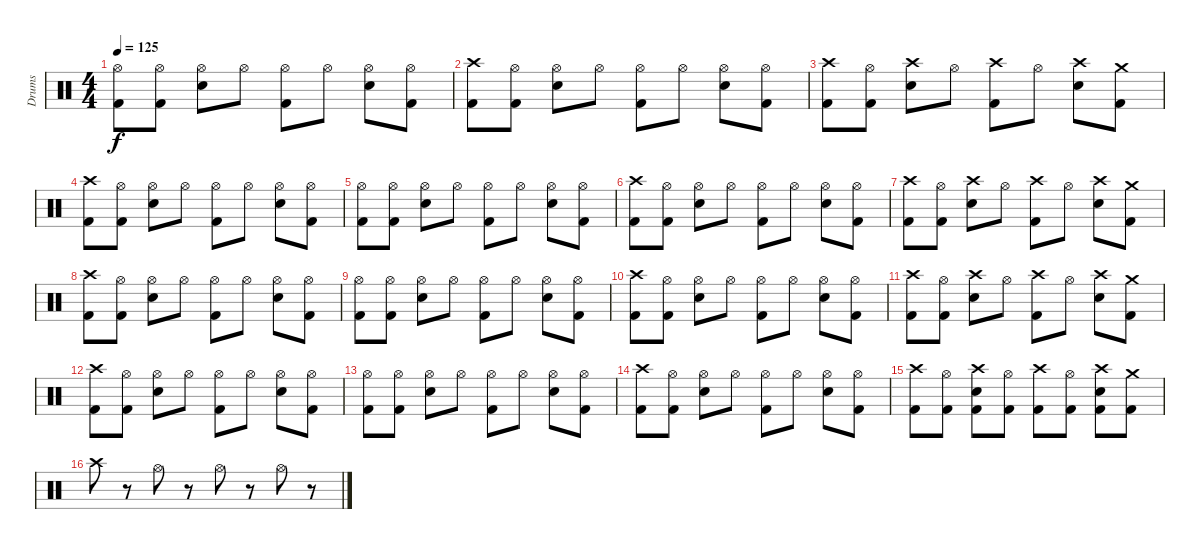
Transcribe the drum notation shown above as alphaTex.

\track ("Drums" "Drums") {instrument percussion}
\staff {score}
\articulation defaults
\ts (4 4)
\tempo 125
\clef neutral
\ks c
("Hi-Hat (open)" "Kick (hit) 2").8{dy f} ("Hi-Hat (open)" "Kick (hit) 2").8 ("Hi-Hat (open)" "Electric Snare (hit)").8 "Hi-Hat (open)".8 ("Hi-Hat (open)" "Kick (hit) 2").8 "Hi-Hat (open)".8 ("Hi-Hat (open)" "Electric Snare (hit)").8 ("Hi-Hat (open)" "Kick (hit) 2").8 |
("Crash high (hit)" "Kick (hit) 2").8 ("Hi-Hat (open)" "Kick (hit) 2").8 ("Hi-Hat (open)" "Electric Snare (hit)").8 "Hi-Hat (open)".8 ("Hi-Hat (open)" "Kick (hit) 2").8 "Hi-Hat (open)".8 ("Hi-Hat (open)" "Electric Snare (hit)").8 ("Hi-Hat (open)" "Kick (hit) 2").8 |
("Crash high (hit)" "Kick (hit) 2").8 ("Hi-Hat (open)" "Kick (hit) 2").8 ("Crash high (hit)" "Electric Snare (hit)").8 "Hi-Hat (open)".8 ("Crash high (hit)" "Kick (hit) 2").8 "Hi-Hat (open)".8 ("Crash high (hit)" "Electric Snare (hit)").8 ("Crash medium (hit)" "Kick (hit) 2").8 |
("Crash high (hit)" "Kick (hit) 2").8 ("Hi-Hat (open)" "Kick (hit) 2").8 ("Hi-Hat (open)" "Electric Snare (hit)").8 "Hi-Hat (open)".8 ("Hi-Hat (open)" "Kick (hit) 2").8 "Hi-Hat (open)".8 ("Hi-Hat (open)" "Electric Snare (hit)").8 ("Hi-Hat (open)" "Kick (hit) 2").8 |
("Hi-Hat (open)" "Kick (hit) 2").8 ("Hi-Hat (open)" "Kick (hit) 2").8 ("Hi-Hat (open)" "Electric Snare (hit)").8 "Hi-Hat (open)".8 ("Hi-Hat (open)" "Kick (hit) 2").8 "Hi-Hat (open)".8 ("Hi-Hat (open)" "Electric Snare (hit)").8 ("Hi-Hat (open)" "Kick (hit) 2").8 |
("Crash high (hit)" "Kick (hit) 2").8 ("Hi-Hat (open)" "Kick (hit) 2").8 ("Hi-Hat (open)" "Electric Snare (hit)").8 "Hi-Hat (open)".8 ("Hi-Hat (open)" "Kick (hit) 2").8 "Hi-Hat (open)".8 ("Hi-Hat (open)" "Electric Snare (hit)").8 ("Hi-Hat (open)" "Kick (hit) 2").8 |
("Crash high (hit)" "Kick (hit) 2").8 ("Hi-Hat (open)" "Kick (hit) 2").8 ("Crash high (hit)" "Electric Snare (hit)").8 "Hi-Hat (open)".8 ("Crash high (hit)" "Kick (hit) 2").8 "Hi-Hat (open)".8 ("Crash high (hit)" "Electric Snare (hit)").8 ("Crash medium (hit)" "Kick (hit) 2").8 |
("Crash high (hit)" "Kick (hit) 2").8 ("Hi-Hat (open)" "Kick (hit) 2").8 ("Hi-Hat (open)" "Electric Snare (hit)").8 "Hi-Hat (open)".8 ("Hi-Hat (open)" "Kick (hit) 2").8 "Hi-Hat (open)".8 ("Hi-Hat (open)" "Electric Snare (hit)").8 ("Hi-Hat (open)" "Kick (hit) 2").8 |
("Hi-Hat (open)" "Kick (hit) 2").8 ("Hi-Hat (open)" "Kick (hit) 2").8 ("Hi-Hat (open)" "Electric Snare (hit)").8 "Hi-Hat (open)".8 ("Hi-Hat (open)" "Kick (hit) 2").8 "Hi-Hat (open)".8 ("Hi-Hat (open)" "Electric Snare (hit)").8 ("Hi-Hat (open)" "Kick (hit) 2").8 |
("Crash high (hit)" "Kick (hit) 2").8 ("Hi-Hat (open)" "Kick (hit) 2").8 ("Hi-Hat (open)" "Electric Snare (hit)").8 "Hi-Hat (open)".8 ("Hi-Hat (open)" "Kick (hit) 2").8 "Hi-Hat (open)".8 ("Hi-Hat (open)" "Electric Snare (hit)").8 ("Hi-Hat (open)" "Kick (hit) 2").8 |
("Crash high (hit)" "Kick (hit) 2").8 ("Hi-Hat (open)" "Kick (hit) 2").8 ("Crash high (hit)" "Electric Snare (hit)").8 "Hi-Hat (open)".8 ("Crash high (hit)" "Kick (hit) 2").8 "Hi-Hat (open)".8 ("Crash high (hit)" "Electric Snare (hit)").8 ("Crash medium (hit)" "Kick (hit) 2").8 |
("Crash high (hit)" "Kick (hit) 2").8 ("Hi-Hat (open)" "Kick (hit) 2").8 ("Hi-Hat (open)" "Electric Snare (hit)").8 "Hi-Hat (open)".8 ("Hi-Hat (open)" "Kick (hit) 2").8 "Hi-Hat (open)".8 ("Hi-Hat (open)" "Electric Snare (hit)").8 ("Hi-Hat (open)" "Kick (hit) 2").8 |
("Hi-Hat (open)" "Kick (hit) 2").8 ("Hi-Hat (open)" "Kick (hit) 2").8 ("Hi-Hat (open)" "Electric Snare (hit)").8 "Hi-Hat (open)".8 ("Hi-Hat (open)" "Kick (hit) 2").8 "Hi-Hat (open)".8 ("Hi-Hat (open)" "Electric Snare (hit)").8 ("Hi-Hat (open)" "Kick (hit) 2").8 |
("Crash high (hit)" "Kick (hit) 2").8 ("Hi-Hat (open)" "Kick (hit) 2").8 ("Hi-Hat (open)" "Electric Snare (hit)").8 "Hi-Hat (open)".8 ("Hi-Hat (open)" "Kick (hit) 2").8 "Hi-Hat (open)".8 ("Hi-Hat (open)" "Electric Snare (hit)").8 ("Hi-Hat (open)" "Kick (hit) 2").8 |
("Crash high (hit)" "Kick (hit) 2").8 ("Hi-Hat (open)" "Kick (hit) 2").8 ("Crash high (hit)" "Electric Snare (hit)" "Kick (hit) 2").8 ("Hi-Hat (open)" "Kick (hit) 2").8 ("Crash high (hit)" "Kick (hit) 2").8 ("Hi-Hat (open)" "Kick (hit) 2").8 ("Crash high (hit)" "Electric Snare (hit)" "Kick (hit) 2").8 ("Crash medium (hit)" "Kick (hit) 2").8 |
"Crash high (hit)".8 r.8 "Hi-Hat (open)".8 r.8 "Hi-Hat (open)".8 r.8 "Hi-Hat (open)".8 r.8
